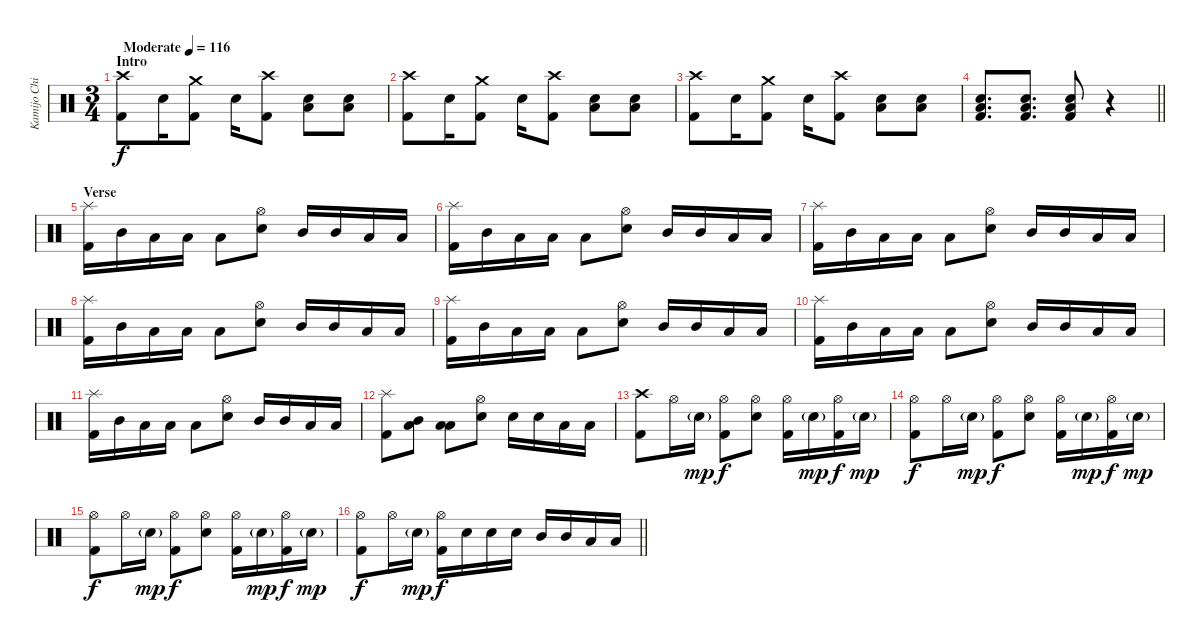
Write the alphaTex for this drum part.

\track ("Kamijo Chihiro" "Kamijo Chi") {instrument percussion}
\staff {score}
\articulation defaults
\ts (3 4)
\section ("" "Intro")
\tempo (116 "Moderate")
\clef neutral
\ks c
("Crash high (hit)" "Kick (hit) 2").8{dy f} "Snare (hit) 2".16 ("Crash medium (hit)" "Kick (hit) 2").8 "Snare (hit) 2".16 ("Crash high (hit)" "Kick (hit) 2").8 ("Snare (hit) 2" "Low Floor Tom (hit)").8 ("Snare (hit) 2" "Low Floor Tom (hit)").8 |
("Crash high (hit)" "Kick (hit) 2").8 "Snare (hit) 2".16 ("Crash medium (hit)" "Kick (hit) 2").8 "Snare (hit) 2".16 ("Crash high (hit)" "Kick (hit) 2").8 ("Snare (hit) 2" "Low Floor Tom (hit)").8 ("Snare (hit) 2" "Low Floor Tom (hit)").8 |
("Crash high (hit)" "Kick (hit) 2").8 "Snare (hit) 2".16 ("Crash medium (hit)" "Kick (hit) 2").8 "Snare (hit) 2".16 ("Crash high (hit)" "Kick (hit) 2").8 ("Snare (hit) 2" "Low Floor Tom (hit)").8 ("Snare (hit) 2" "Low Floor Tom (hit)").8 |
\barLineRight lightlight
("Snare (hit) 2" "Low Floor Tom (hit)" "Kick (hit) 2").8{d} ("Snare (hit) 2" "Low Floor Tom (hit)" "Kick (hit) 2").8{d} ("Snare (hit) 2" "Low Floor Tom (hit)" "Kick (hit) 2").8 r.4 |
\section ("" "Verse")
("Splash (hit)" "Kick (hit) 2").16 "Mid Tom (hit)".16 "Low Tom (hit)".16 "Low Tom (hit)".16 "Low Floor Tom (hit)".8 ("Hi-Hat (open)" "Snare (hit) 2").8 "Mid Tom (hit)".16 "Mid Tom (hit)".16 "Low Tom (hit)".16 "Low Tom (hit)".16 |
("Splash (hit)" "Kick (hit) 2").16 "Mid Tom (hit)".16 "Low Tom (hit)".16 "Low Tom (hit)".16 "Low Floor Tom (hit)".8 ("Hi-Hat (open)" "Snare (hit) 2").8 "Mid Tom (hit)".16 "Mid Tom (hit)".16 "Low Tom (hit)".16 "Low Tom (hit)".16 |
("Splash (hit)" "Kick (hit) 2").16 "Mid Tom (hit)".16 "Low Tom (hit)".16 "Low Tom (hit)".16 "Low Floor Tom (hit)".8 ("Hi-Hat (open)" "Snare (hit) 2").8 "Mid Tom (hit)".16 "Mid Tom (hit)".16 "Low Tom (hit)".16 "Low Tom (hit)".16 |
("Splash (hit)" "Kick (hit) 2").16 "Mid Tom (hit)".16 "Low Tom (hit)".16 "Low Tom (hit)".16 "Low Floor Tom (hit)".8 ("Hi-Hat (open)" "Snare (hit) 2").8 "Mid Tom (hit)".16 "Mid Tom (hit)".16 "Low Tom (hit)".16 "Low Tom (hit)".16 |
("Splash (hit)" "Kick (hit) 2").16 "Mid Tom (hit)".16 "Low Tom (hit)".16 "Low Tom (hit)".16 "Low Floor Tom (hit)".8 ("Hi-Hat (open)" "Snare (hit) 2").8 "Mid Tom (hit)".16 "Mid Tom (hit)".16 "Low Tom (hit)".16 "Low Tom (hit)".16 |
("Splash (hit)" "Kick (hit) 2").16 "Mid Tom (hit)".16 "Low Tom (hit)".16 "Low Tom (hit)".16 "Low Floor Tom (hit)".8 ("Hi-Hat (open)" "Snare (hit) 2").8 "Mid Tom (hit)".16 "Mid Tom (hit)".16 "Low Tom (hit)".16 "Low Tom (hit)".16 |
("Splash (hit)" "Kick (hit) 2").16 "Mid Tom (hit)".16 "Low Tom (hit)".16 "Low Tom (hit)".16 "Low Floor Tom (hit)".8 ("Hi-Hat (open)" "Snare (hit) 2").8 "Mid Tom (hit)".16 "Mid Tom (hit)".16 "Low Tom (hit)".16 "Low Tom (hit)".16 |
("Splash (hit)" "Kick (hit) 2").8 ("Mid Tom (hit)" "Low Tom (hit)").8 ("Low Tom (hit)" "Low Floor Tom (hit)").8 ("Hi-Hat (open)" "Snare (hit) 2").8 "Snare (hit) 2".16 "Snare (hit) 2".16 "Low Tom (hit)".16 "Low Tom (hit)".16 |
("Crash high (hit)" "Kick (hit) 2").8 "Hi-Hat (open)".16 "Snare (hit) 2"{g}.16{dy mp} ("Hi-Hat (open)" "Kick (hit) 2").8{dy f} ("Hi-Hat (open)" "Snare (hit) 2").8 ("Hi-Hat (open)" "Kick (hit) 2").16 "Snare (hit) 2"{g}.16{dy mp} ("Hi-Hat (open)" "Kick (hit) 2").16{dy f} "Snare (hit) 2"{g}.16{dy mp} |
("Hi-Hat (open)" "Kick (hit) 2").8{dy f} "Hi-Hat (open)".16 "Snare (hit) 2"{g}.16{dy mp} ("Hi-Hat (open)" "Kick (hit) 2").8{dy f} ("Hi-Hat (open)" "Snare (hit) 2").8 ("Hi-Hat (open)" "Kick (hit) 2").16 "Snare (hit) 2"{g}.16{dy mp} ("Hi-Hat (open)" "Kick (hit) 2").16{dy f} "Snare (hit) 2"{g}.16{dy mp} |
("Hi-Hat (open)" "Kick (hit) 2").8{dy f} "Hi-Hat (open)".16 "Snare (hit) 2"{g}.16{dy mp} ("Hi-Hat (open)" "Kick (hit) 2").8{dy f} ("Hi-Hat (open)" "Snare (hit) 2").8 ("Hi-Hat (open)" "Kick (hit) 2").16 "Snare (hit) 2"{g}.16{dy mp} ("Hi-Hat (open)" "Kick (hit) 2").16{dy f} "Snare (hit) 2"{g}.16{dy mp} |
\barLineRight lightlight
("Hi-Hat (open)" "Kick (hit) 2").8{dy f} "Hi-Hat (open)".16 "Snare (hit) 2"{g}.16{dy mp} ("Hi-Hat (open)" "Kick (hit) 2").16{dy f} "Snare (hit) 2".16 "Snare (hit) 2".16 "Snare (hit) 2".16 "Mid Tom (hit)".16 "Mid Tom (hit)".16 "Low Tom (hit)".16 "Low Tom (hit)".16
